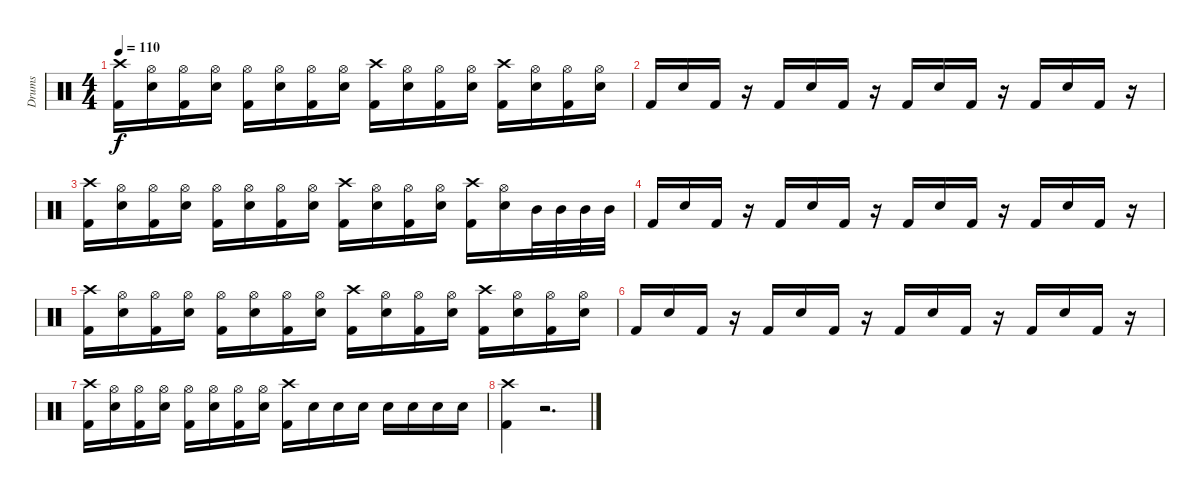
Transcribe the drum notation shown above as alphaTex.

\track ("Drums" "Drums") {instrument percussion}
\staff {score}
\articulation defaults
\ts (4 4)
\tempo 110
\clef neutral
\ks c
("Crash high (hit)" "Kick (hit) 2").16{dy f} ("Hi-Hat (open)" "Electric Snare (hit)").16 ("Hi-Hat (open)" "Kick (hit) 2").16 ("Hi-Hat (open)" "Electric Snare (hit)").16 ("Hi-Hat (open)" "Kick (hit) 2").16 ("Hi-Hat (open)" "Electric Snare (hit)").16 ("Hi-Hat (open)" "Kick (hit) 2").16 ("Hi-Hat (open)" "Electric Snare (hit)").16 ("Crash high (hit)" "Kick (hit) 2").16 ("Hi-Hat (open)" "Electric Snare (hit)").16 ("Hi-Hat (open)" "Kick (hit) 2").16 ("Hi-Hat (open)" "Electric Snare (hit)").16 ("Crash high (hit)" "Kick (hit) 2").16 ("Hi-Hat (open)" "Electric Snare (hit)").16 ("Hi-Hat (open)" "Kick (hit) 2").16 ("Hi-Hat (open)" "Electric Snare (hit)").16 |
"Kick (hit) 2".16 "Electric Snare (hit)".16 "Kick (hit) 2".16 r.16 "Kick (hit) 2".16 "Electric Snare (hit)".16 "Kick (hit) 2".16 r.16 "Kick (hit) 2".16 "Electric Snare (hit)".16 "Kick (hit) 2".16 r.16 "Kick (hit) 2".16 "Electric Snare (hit)".16 "Kick (hit) 2".16 r.16 |
("Crash high (hit)" "Kick (hit) 2").16 ("Hi-Hat (open)" "Electric Snare (hit)").16 ("Hi-Hat (open)" "Kick (hit) 2").16 ("Hi-Hat (open)" "Electric Snare (hit)").16 ("Hi-Hat (open)" "Kick (hit) 2").16 ("Hi-Hat (open)" "Electric Snare (hit)").16 ("Hi-Hat (open)" "Kick (hit) 2").16 ("Hi-Hat (open)" "Electric Snare (hit)").16 ("Crash high (hit)" "Kick (hit) 2").16 ("Hi-Hat (open)" "Electric Snare (hit)").16 ("Hi-Hat (open)" "Kick (hit) 2").16 ("Hi-Hat (open)" "Electric Snare (hit)").16 ("Crash high (hit)" "Kick (hit) 2").16 ("Hi-Hat (open)" "Electric Snare (hit)").16 "Mid Tom (hit)".32 "Mid Tom (hit)".32 "Mid Tom (hit)".32 "Mid Tom (hit)".32 |
"Kick (hit) 2".16 "Electric Snare (hit)".16 "Kick (hit) 2".16 r.16 "Kick (hit) 2".16 "Electric Snare (hit)".16 "Kick (hit) 2".16 r.16 "Kick (hit) 2".16 "Electric Snare (hit)".16 "Kick (hit) 2".16 r.16 "Kick (hit) 2".16 "Electric Snare (hit)".16 "Kick (hit) 2".16 r.16 |
("Crash high (hit)" "Kick (hit) 2").16 ("Hi-Hat (open)" "Electric Snare (hit)").16 ("Hi-Hat (open)" "Kick (hit) 2").16 ("Hi-Hat (open)" "Electric Snare (hit)").16 ("Hi-Hat (open)" "Kick (hit) 2").16 ("Hi-Hat (open)" "Electric Snare (hit)").16 ("Hi-Hat (open)" "Kick (hit) 2").16 ("Hi-Hat (open)" "Electric Snare (hit)").16 ("Crash high (hit)" "Kick (hit) 2").16 ("Hi-Hat (open)" "Electric Snare (hit)").16 ("Hi-Hat (open)" "Kick (hit) 2").16 ("Hi-Hat (open)" "Electric Snare (hit)").16 ("Crash high (hit)" "Kick (hit) 2").16 ("Hi-Hat (open)" "Electric Snare (hit)").16 ("Hi-Hat (open)" "Kick (hit) 2").16 ("Hi-Hat (open)" "Electric Snare (hit)").16 |
"Kick (hit) 2".16 "Electric Snare (hit)".16 "Kick (hit) 2".16 r.16 "Kick (hit) 2".16 "Electric Snare (hit)".16 "Kick (hit) 2".16 r.16 "Kick (hit) 2".16 "Electric Snare (hit)".16 "Kick (hit) 2".16 r.16 "Kick (hit) 2".16 "Electric Snare (hit)".16 "Kick (hit) 2".16 r.16 |
("Crash high (hit)" "Kick (hit) 2").16 ("Hi-Hat (open)" "Electric Snare (hit)").16 ("Hi-Hat (open)" "Kick (hit) 2").16 ("Hi-Hat (open)" "Electric Snare (hit)").16 ("Hi-Hat (open)" "Kick (hit) 2").16 ("Hi-Hat (open)" "Electric Snare (hit)").16 ("Hi-Hat (open)" "Kick (hit) 2").16 ("Hi-Hat (open)" "Electric Snare (hit)").16 ("Crash high (hit)" "Kick (hit) 2").16 "Electric Snare (hit)".16 "Electric Snare (hit)".16 "Electric Snare (hit)".16 "Electric Snare (hit)".16 "Electric Snare (hit)".16 "Electric Snare (hit)".16 "Electric Snare (hit)".16 |
("Crash high (hit)" "Kick (hit) 2").4 r.2{d}
